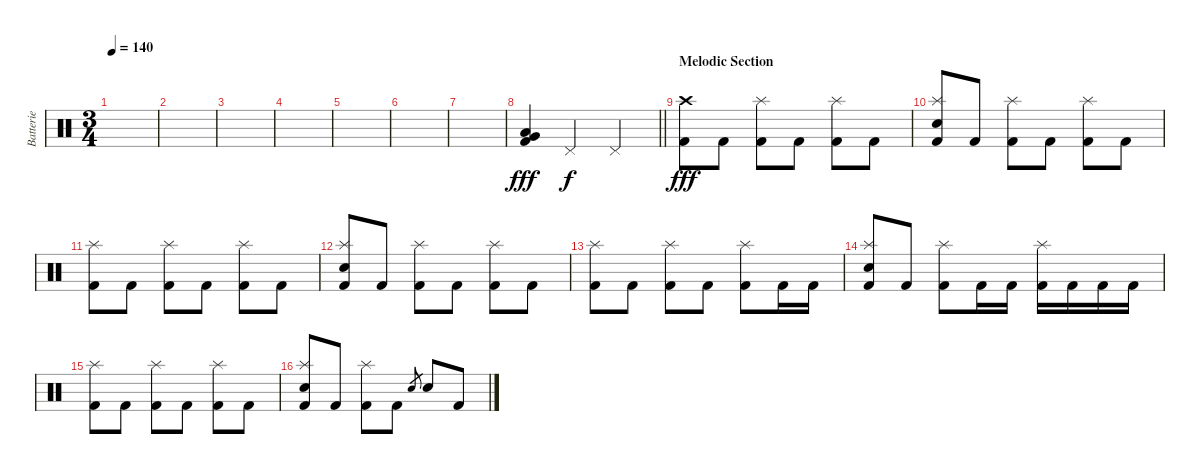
\track ("Batterie" "Batterie") {instrument percussion}
\staff {score}
\articulation defaults
\ts (3 4)
\tempo 140
\clef neutral
\ks c
|
|
|
|
|
|
|
\barLineRight lightlight
("Low Floor Tom (hit)" "Very Low Tom (hit)" "Kick (hit) 2").4{dy fff} "Pedal Hi-Hat (hit)".4{dy f} "Pedal Hi-Hat (hit)".4 |
\section ("" "Melodic Section")
("Crash high (hit)" "Kick (hit) 2").8{dy fff volume 12} "Kick (hit) 2".8 ("Splash (hit)" "Kick (hit) 2").8 "Kick (hit) 2".8 ("Splash (hit)" "Kick (hit) 2").8 "Kick (hit) 2".8 |
("Splash (hit)" "Electric Snare (hit)" "Kick (hit) 2").8 "Kick (hit) 2".8 ("Splash (hit)" "Kick (hit) 2").8 "Kick (hit) 2".8 ("Splash (hit)" "Kick (hit) 2").8 "Kick (hit) 2".8 |
("Splash (hit)" "Kick (hit) 2").8 "Kick (hit) 2".8 ("Splash (hit)" "Kick (hit) 2").8 "Kick (hit) 2".8 ("Splash (hit)" "Kick (hit) 2").8 "Kick (hit) 2".8 |
("Splash (hit)" "Electric Snare (hit)" "Kick (hit) 2").8 "Kick (hit) 2".8 ("Splash (hit)" "Kick (hit) 2").8 "Kick (hit) 2".8 ("Splash (hit)" "Kick (hit) 2").8 "Kick (hit) 2".8 |
("Splash (hit)" "Kick (hit) 2").8 "Kick (hit) 2".8 ("Splash (hit)" "Kick (hit) 2").8 "Kick (hit) 2".8 ("Splash (hit)" "Kick (hit) 2").8 "Kick (hit) 2".16 "Kick (hit) 2".16 |
("Splash (hit)" "Electric Snare (hit)" "Kick (hit) 2").8 "Kick (hit) 2".8 ("Splash (hit)" "Kick (hit) 2").8 "Kick (hit) 2".16 "Kick (hit) 2".16 ("Splash (hit)" "Kick (hit) 2").16 "Kick (hit) 2".16 "Kick (hit) 2".16 "Kick (hit) 2".16 |
("Splash (hit)" "Kick (hit) 2").8 "Kick (hit) 2".8 ("Splash (hit)" "Kick (hit) 2").8 "Kick (hit) 2".8 ("Splash (hit)" "Kick (hit) 2").8 "Kick (hit) 2".8 |
("Splash (hit)" "Electric Snare (hit)" "Kick (hit) 2").8 "Kick (hit) 2".8 ("Splash (hit)" "Kick (hit) 2").8 "Kick (hit) 2".8 "Electric Snare (hit)".8{gr} "Electric Snare (hit)".8 "Kick (hit) 2".8
